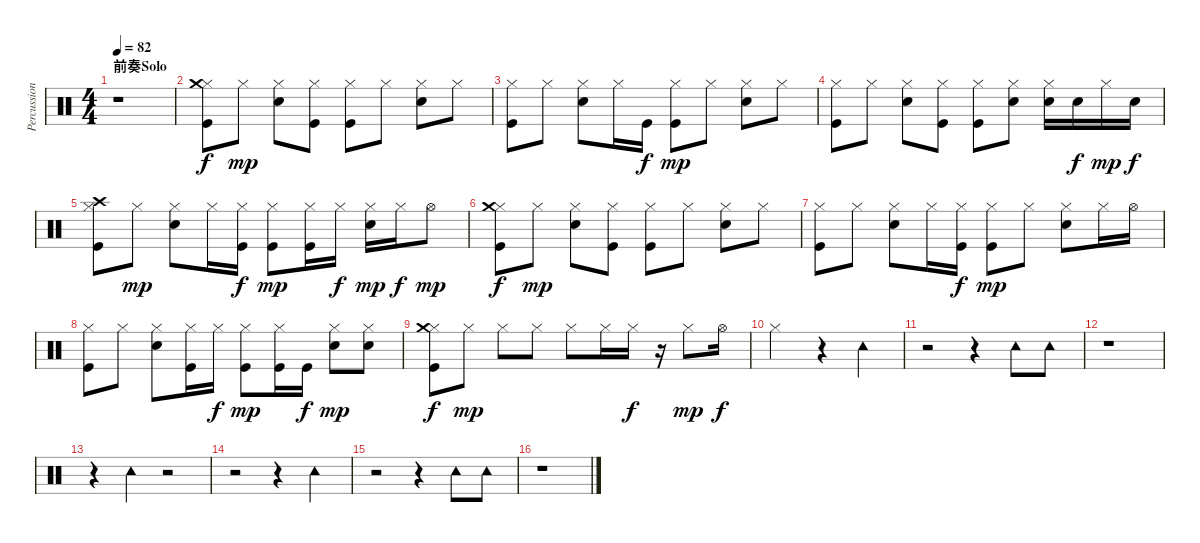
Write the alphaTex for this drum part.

\track ("Percussion" "Percussion") {instrument percussion}
\staff {score}
\articulation defaults
\ts (4 4)
\section ("" "前奏Solo")
\tempo 82
\clef neutral
\ks c
r.1{dy f} |
("Kick (hit)" "Hi-Hat (closed)" "Crash medium (hit)").8 "Hi-Hat (closed)".8{dy mp} ("Electric Snare (hit)" "Hi-Hat (closed)").8 ("Kick (hit)" "Hi-Hat (closed)").8 ("Kick (hit)" "Hi-Hat (closed)").8 "Hi-Hat (closed)".8 ("Electric Snare (hit)" "Hi-Hat (closed)").8 "Hi-Hat (closed)".8 |
("Kick (hit)" "Hi-Hat (closed)").8 "Hi-Hat (closed)".8 ("Electric Snare (hit)" "Hi-Hat (closed)").8 "Hi-Hat (closed)".16 "Kick (hit)".16{dy f} ("Kick (hit)" "Hi-Hat (closed)").8{dy mp} "Hi-Hat (closed)".8 ("Electric Snare (hit)" "Hi-Hat (closed)").8 "Hi-Hat (closed)".8 |
("Kick (hit)" "Hi-Hat (closed)").8 "Hi-Hat (closed)".8 ("Electric Snare (hit)" "Hi-Hat (closed)").8 ("Kick (hit)" "Hi-Hat (closed)").8 ("Kick (hit)" "Hi-Hat (closed)").8 ("Electric Snare (hit)" "Hi-Hat (closed)").8 ("Electric Snare (hit)" "Hi-Hat (closed)").16 "Electric Snare (hit)".16{dy f} "Hi-Hat (closed)".16{dy mp} "Electric Snare (hit)".16{dy f} |
("Kick (hit)" "Hi-Hat (closed)" "Crash high (hit)").8 "Hi-Hat (closed)".8{dy mp} ("Electric Snare (hit)" "Hi-Hat (closed)").8 "Hi-Hat (closed)".16 ("Kick (hit)" "Hi-Hat (closed)").16{dy f} ("Kick (hit)" "Hi-Hat (closed)").8{dy mp} ("Kick (hit)" "Hi-Hat (closed)").16 "Hi-Hat (closed)".16{dy f} ("Electric Snare (hit)" "Hi-Hat (closed)").16{dy mp} "Hi-Hat (closed)".16{dy f} "Hi-Hat (open)".8{dy mp} |
("Kick (hit)" "Hi-Hat (closed)" "Crash medium (hit)").8{dy f} "Hi-Hat (closed)".8{dy mp} ("Electric Snare (hit)" "Hi-Hat (closed)").8 ("Kick (hit)" "Hi-Hat (closed)").8 ("Kick (hit)" "Hi-Hat (closed)").8 "Hi-Hat (closed)".8 ("Electric Snare (hit)" "Hi-Hat (closed)").8 "Hi-Hat (closed)".8 |
("Kick (hit)" "Hi-Hat (closed)").8 "Hi-Hat (closed)".8 ("Electric Snare (hit)" "Hi-Hat (closed)").8 "Hi-Hat (closed)".16 ("Kick (hit)" "Hi-Hat (closed)").16{dy f} ("Kick (hit)" "Hi-Hat (closed)").8{dy mp} "Hi-Hat (closed)".8 ("Electric Snare (hit)" "Hi-Hat (closed)").8 "Hi-Hat (closed)".16 "Hi-Hat (open)".16 |
("Kick (hit)" "Hi-Hat (closed)").8 "Hi-Hat (closed)".8 ("Electric Snare (hit)" "Hi-Hat (closed)").8 ("Kick (hit)" "Hi-Hat (closed)").16 "Hi-Hat (closed)".16{dy f} ("Kick (hit)" "Hi-Hat (closed)").8{dy mp} ("Kick (hit)" "Hi-Hat (closed)").16 "Kick (hit)".16{dy f} ("Electric Snare (hit)" "Hi-Hat (closed)").8{dy mp} ("Electric Snare (hit)" "Hi-Hat (closed)").8 |
("Kick (hit)" "Hi-Hat (closed)" "Crash medium (hit)").8{dy f} "Hi-Hat (closed)".8{dy mp} "Hi-Hat (closed)".8 "Hi-Hat (closed)".8 "Hi-Hat (closed)".8 "Hi-Hat (closed)".16 "Hi-Hat (closed)".16{dy f} r.16 "Hi-Hat (closed)".8{dy mp} "Hi-Hat (open)".16{dy f} |
"Hi-Hat (closed)".2 r.4 "Tambourine (hit)".4 |
r.2 r.4 "Tambourine (hit)".8 "Tambourine (hit)".8 |
r.1 |
r.4 "Tambourine (hit)".4 r.2 |
r.2 r.4 "Tambourine (hit)".4 |
r.2 r.4 "Tambourine (hit)".8 "Tambourine (hit)".8 |
r.1
